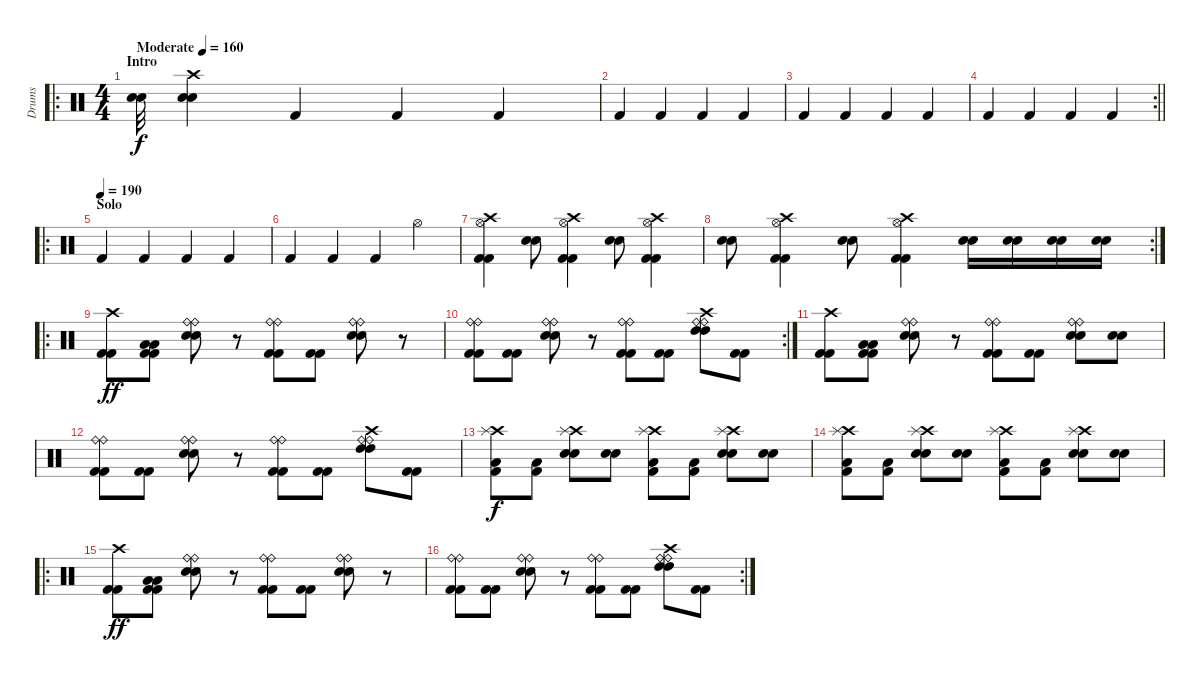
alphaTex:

\track ("Drums" "Drums") {instrument percussion}
\staff {score}
\articulation defaults
\ro
\ts (4 4)
\section ("" "Intro")
\tempo (160 "Moderate")
\clef neutral
\ks c
("Snare (hit) 2" "Electric Snare (hit)").32{dy f} ("Crash high (hit)" "Electric Snare (hit)" "Snare (hit) 2").4 "Kick (hit) 2".4 "Kick (hit) 2".4 "Kick (hit) 2".4 |
"Kick (hit) 2".4 "Kick (hit) 2".4 "Kick (hit) 2".4 "Kick (hit) 2".4 |
"Kick (hit) 2".4 "Kick (hit) 2".4 "Kick (hit) 2".4 "Kick (hit) 2".4 |
\rc 2
\barLineRight lightlight "Kick (hit) 2".4 "Kick (hit) 2".4 "Kick (hit) 2".4 "Kick (hit) 2".4
|
\ro
\section ("" "Solo")
\tempo (190)
"Kick (hit) 2".4 "Kick (hit) 2".4 "Kick (hit) 2".4 "Kick (hit) 2".4 |
"Kick (hit) 2".4 "Kick (hit) 2".4 "Kick (hit) 2".4 "Hi-Hat (open)".4 |
("Hi-Hat (open)" "Crash high (hit)" "Kick (hit) 2" "Kick (hit) 2").4 ("Electric Snare (hit)" "Snare (hit) 2").8 ("Hi-Hat (open)" "Crash high (hit)" "Kick (hit) 2" "Kick (hit) 2").4 ("Electric Snare (hit)" "Snare (hit) 2").8 ("Hi-Hat (open)" "Crash high (hit)" "Kick (hit) 2" "Kick (hit) 2").4 |
\rc 2
("Electric Snare (hit)" "Snare (hit) 2").8 ("Hi-Hat (open)" "Crash high (hit)" "Kick (hit) 2" "Kick (hit) 2").4 ("Electric Snare (hit)" "Snare (hit) 2").8 ("Hi-Hat (open)" "Crash high (hit)" "Kick (hit) 2" "Kick (hit) 2").4 ("Snare (hit) 2" "Electric Snare (hit)").16 ("Snare (hit) 2" "Electric Snare (hit)").16 ("Snare (hit) 2" "Electric Snare (hit)").16 ("Snare (hit) 2" "Electric Snare (hit)").16 |
\ro
("Kick (hit) 2" "Kick (hit) 2" "Crash high (hit)").8{dy ff} ("Kick (hit) 2" "Kick (hit) 2" "Low Tom (hit)" "Low Tom (hit)").8 ("Electric Snare (hit)" "Electric Snare (hit)" "Ride (bell)" "Ride (bell)").8 r.8 ("Kick (hit) 2" "Kick (hit) 2" "Ride (bell)" "Ride (bell)").8 ("Kick (hit) 2" "Kick (hit) 2").8 ("Electric Snare (hit)" "Electric Snare (hit)" "Ride (bell)" "Ride (bell)").8 r.8 |
\rc 2
("Kick (hit) 2" "Kick (hit) 2" "Ride (bell)" "Ride (bell)").8 ("Kick (hit) 2" "Kick (hit) 2").8 ("Electric Snare (hit)" "Electric Snare (hit)" "Ride (bell)" "Ride (bell)").8 r.8 ("Kick (hit) 2" "Kick (hit) 2" "Ride (bell)" "Ride (bell)").8 ("Kick (hit) 2" "Kick (hit) 2").8 ("High Tom (hit)" "High Tom (hit)" "Ride (bell)" "Crash high (hit)" "Ride (bell)").8 ("Kick (hit) 2" "Kick (hit) 2").8 |
("Kick (hit) 2" "Kick (hit) 2" "Crash high (hit)").8 ("Kick (hit) 2" "Kick (hit) 2" "Low Tom (hit)" "Low Tom (hit)").8 ("Electric Snare (hit)" "Electric Snare (hit)" "Ride (bell)" "Ride (bell)").8 r.8 ("Kick (hit) 2" "Kick (hit) 2" "Ride (bell)" "Ride (bell)").8 ("Kick (hit) 2" "Kick (hit) 2").8 ("Electric Snare (hit)" "Electric Snare (hit)" "Ride (bell)" "Ride (bell)").8 ("Electric Snare (hit)" "Electric Snare (hit)").8 |
("Kick (hit) 2" "Kick (hit) 2" "Ride (bell)" "Ride (bell)").8 ("Kick (hit) 2" "Kick (hit) 2").8 ("Electric Snare (hit)" "Electric Snare (hit)" "Ride (bell)" "Ride (bell)").8 r.8 ("Kick (hit) 2" "Kick (hit) 2" "Ride (bell)" "Ride (bell)").8 ("Kick (hit) 2" "Kick (hit) 2").8 ("High Tom (hit)" "High Tom (hit)" "Ride (bell)" "Crash high (hit)" "Ride (bell)").8 ("Kick (hit) 2" "Kick (hit) 2").8 |
("Crash high (hit)" "Splash (hit)" "Kick (hit) 2" "Low Floor Tom (hit)").8{dy f} ("Kick (hit) 2" "Low Floor Tom (hit)").8 ("Crash high (hit)" "Splash (hit)" "Electric Snare (hit)" "Electric Snare (hit)").8 ("Electric Snare (hit)" "Electric Snare (hit)").8 ("Crash high (hit)" "Splash (hit)" "Kick (hit) 2" "Low Floor Tom (hit)").8 ("Kick (hit) 2" "Low Floor Tom (hit)").8 ("Crash high (hit)" "Splash (hit)" "Electric Snare (hit)" "Electric Snare (hit)").8 ("Electric Snare (hit)" "Electric Snare (hit)").8 |
("Crash high (hit)" "Splash (hit)" "Kick (hit) 2" "Low Floor Tom (hit)").8 ("Kick (hit) 2" "Low Floor Tom (hit)").8 ("Crash high (hit)" "Splash (hit)" "Electric Snare (hit)" "Electric Snare (hit)").8 ("Electric Snare (hit)" "Electric Snare (hit)").8 ("Crash high (hit)" "Splash (hit)" "Kick (hit) 2" "Low Floor Tom (hit)").8 ("Kick (hit) 2" "Low Floor Tom (hit)").8 ("Crash high (hit)" "Splash (hit)" "Electric Snare (hit)" "Electric Snare (hit)").8 ("Electric Snare (hit)" "Electric Snare (hit)").8 |
\ro
("Kick (hit) 2" "Kick (hit) 2" "Crash high (hit)").8{dy ff} ("Kick (hit) 2" "Kick (hit) 2" "Low Tom (hit)" "Low Tom (hit)").8 ("Electric Snare (hit)" "Electric Snare (hit)" "Ride (bell)" "Ride (bell)").8 r.8 ("Kick (hit) 2" "Kick (hit) 2" "Ride (bell)" "Ride (bell)").8 ("Kick (hit) 2" "Kick (hit) 2").8 ("Electric Snare (hit)" "Electric Snare (hit)" "Ride (bell)" "Ride (bell)").8 r.8 |
\rc 2
("Kick (hit) 2" "Kick (hit) 2" "Ride (bell)" "Ride (bell)").8 ("Kick (hit) 2" "Kick (hit) 2").8 ("Electric Snare (hit)" "Electric Snare (hit)" "Ride (bell)" "Ride (bell)").8 r.8 ("Kick (hit) 2" "Kick (hit) 2" "Ride (bell)" "Ride (bell)").8 ("Kick (hit) 2" "Kick (hit) 2").8 ("High Tom (hit)" "High Tom (hit)" "Ride (bell)" "Crash high (hit)" "Ride (bell)").8 ("Kick (hit) 2" "Kick (hit) 2").8
